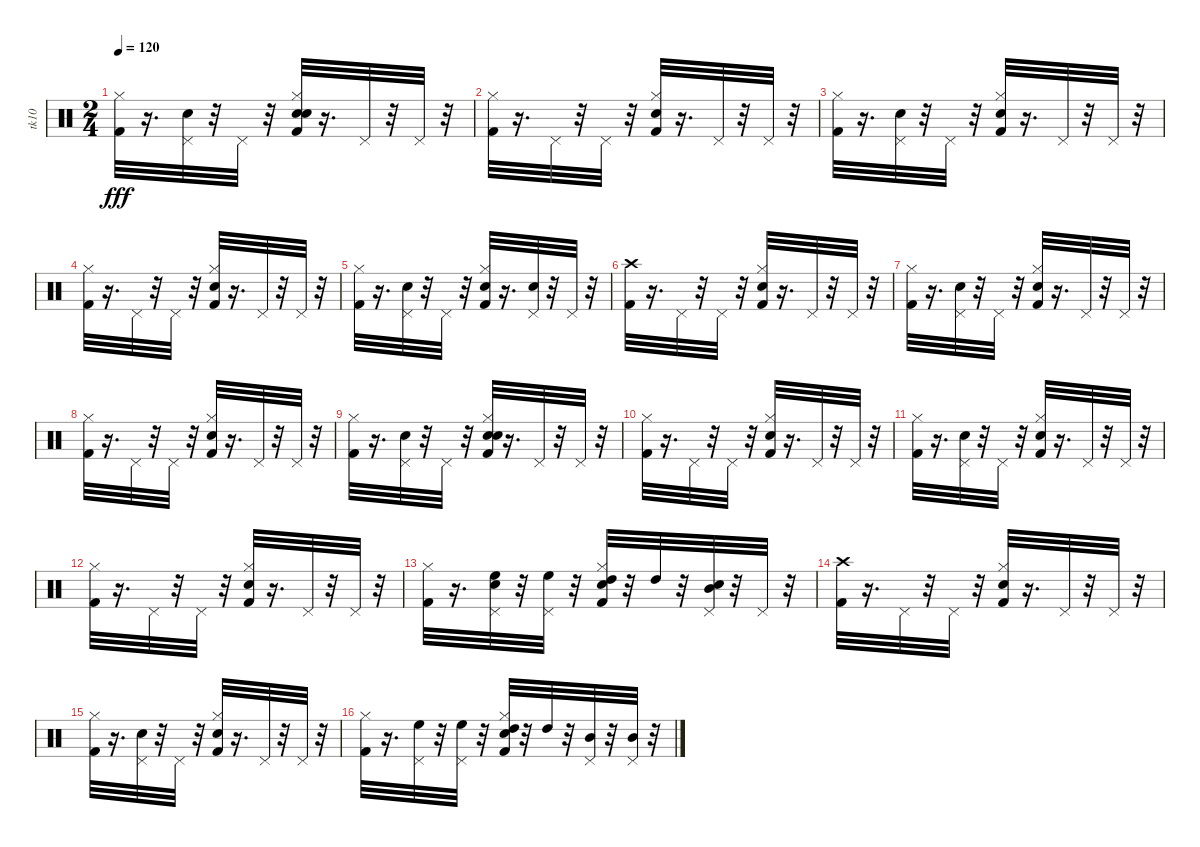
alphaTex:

\track ("tk10" "tk10") {instrument percussion}
\staff {score}
\articulation defaults
\ts (2 4)
\tempo 120
\clef neutral
\ks c
("Kick (hit) 2" "Hi-Hat (closed)").32{dy fff} r.16{d} ("Hand Clap (hit)" "Pedal Hi-Hat (hit)").32 r.32 "Pedal Hi-Hat (hit)".32 r.32 ("Snare (hit) 2" "Kick (hit) 2" "Hand Clap (hit)" "Hi-Hat (closed)").32 r.16{d} "Pedal Hi-Hat (hit)".32 r.32 "Pedal Hi-Hat (hit)".32 r.32 |
("Kick (hit) 2" "Hi-Hat (closed)").32 r.16{d} "Pedal Hi-Hat (hit)".32 r.32 "Pedal Hi-Hat (hit)".32 r.32 ("Kick (hit) 2" "Snare (hit) 2" "Hi-Hat (closed)").32 r.16{d} "Pedal Hi-Hat (hit)".32 r.32 "Pedal Hi-Hat (hit)".32 r.32 |
("Kick (hit) 2" "Hi-Hat (closed)").32 r.16{d} ("Hand Clap (hit)" "Pedal Hi-Hat (hit)").32 r.32 "Pedal Hi-Hat (hit)".32 r.32 ("Kick (hit) 2" "Snare (hit) 2" "Hi-Hat (closed)").32 r.16{d} "Pedal Hi-Hat (hit)".32 r.32 "Pedal Hi-Hat (hit)".32 r.32 |
("Kick (hit) 2" "Hi-Hat (closed)").32 r.16{d} "Pedal Hi-Hat (hit)".32 r.32 "Pedal Hi-Hat (hit)".32 r.32 ("Snare (hit) 2" "Kick (hit) 2" "Hi-Hat (closed)").32 r.16{d} "Pedal Hi-Hat (hit)".32 r.32 "Pedal Hi-Hat (hit)".32 r.32 |
("Kick (hit) 2" "Hi-Hat (closed)").32 r.16{d} ("Hand Clap (hit)" "Pedal Hi-Hat (hit)").32 r.32 "Pedal Hi-Hat (hit)".32 r.32 ("Snare (hit) 2" "Kick (hit) 2" "Hi-Hat (closed)").32 r.16{d} ("Hand Clap (hit)" "Pedal Hi-Hat (hit)").32 r.32 "Pedal Hi-Hat (hit)".32 r.32 |
("Kick (hit) 2" "Crash high (hit)").32 r.16{d} "Pedal Hi-Hat (hit)".32 r.32 "Pedal Hi-Hat (hit)".32 r.32 ("Snare (hit) 2" "Kick (hit) 2" "Hi-Hat (closed)").32 r.16{d} "Pedal Hi-Hat (hit)".32 r.32 "Pedal Hi-Hat (hit)".32 r.32 |
("Kick (hit) 2" "Hi-Hat (closed)").32 r.16{d} ("Pedal Hi-Hat (hit)" "Hand Clap (hit)").32 r.32 "Pedal Hi-Hat (hit)".32 r.32 ("Snare (hit) 2" "Kick (hit) 2" "Hi-Hat (closed)").32 r.16{d} "Pedal Hi-Hat (hit)".32 r.32 "Pedal Hi-Hat (hit)".32 r.32 |
("Kick (hit) 2" "Hi-Hat (closed)").32 r.16{d} "Pedal Hi-Hat (hit)".32 r.32 "Pedal Hi-Hat (hit)".32 r.32 ("Snare (hit) 2" "Kick (hit) 2" "Hi-Hat (closed)").32 r.16{d} "Pedal Hi-Hat (hit)".32 r.32 "Pedal Hi-Hat (hit)".32 r.32 |
("Kick (hit) 2" "Hi-Hat (closed)").32 r.16{d} ("Hand Clap (hit)" "Pedal Hi-Hat (hit)").32 r.32 "Pedal Hi-Hat (hit)".32 r.32 ("Snare (hit) 2" "Kick (hit) 2" "Hand Clap (hit)" "Hi-Hat (closed)").32 r.16{d} "Pedal Hi-Hat (hit)".32 r.32 "Pedal Hi-Hat (hit)".32 r.32 |
("Kick (hit) 2" "Hi-Hat (closed)").32 r.16{d} "Pedal Hi-Hat (hit)".32 r.32 "Pedal Hi-Hat (hit)".32 r.32 ("Kick (hit) 2" "Snare (hit) 2" "Hi-Hat (closed)").32 r.16{d} "Pedal Hi-Hat (hit)".32 r.32 "Pedal Hi-Hat (hit)".32 r.32 |
("Kick (hit) 2" "Hi-Hat (closed)").32 r.16{d} ("Hand Clap (hit)" "Pedal Hi-Hat (hit)").32 r.32 "Pedal Hi-Hat (hit)".32 r.32 ("Kick (hit) 2" "Snare (hit) 2" "Hi-Hat (closed)").32 r.16{d} "Pedal Hi-Hat (hit)".32 r.32 "Pedal Hi-Hat (hit)".32 r.32 |
("Kick (hit) 2" "Hi-Hat (closed)").32 r.16{d} "Pedal Hi-Hat (hit)".32 r.32 "Pedal Hi-Hat (hit)".32 r.32 ("Snare (hit) 2" "Kick (hit) 2" "Hi-Hat (closed)").32 r.16{d} "Pedal Hi-Hat (hit)".32 r.32 "Pedal Hi-Hat (hit)".32 r.32 |
("Kick (hit) 2" "Hi-Hat (closed)").32 r.16{d} ("Hand Clap (hit)" "High Floor Tom (hit)" "Pedal Hi-Hat (hit)").32 r.32 ("High Floor Tom (hit)" "Pedal Hi-Hat (hit)").32 r.32 ("Snare (hit) 2" "Kick (hit) 2" "High Tom (hit)" "Hi-Hat (closed)").32 r.32 "High Tom (hit)".32 r.32 ("Hand Clap (hit)" "Mid Tom (hit)" "Pedal Hi-Hat (hit)").32 r.32 "Pedal Hi-Hat (hit)".32 r.32 |
("Kick (hit) 2" "Crash high (hit)").32 r.16{d} "Pedal Hi-Hat (hit)".32 r.32 "Pedal Hi-Hat (hit)".32 r.32 ("Snare (hit) 2" "Kick (hit) 2" "Hi-Hat (closed)").32 r.16{d} "Pedal Hi-Hat (hit)".32 r.32 "Pedal Hi-Hat (hit)".32 r.32 |
("Kick (hit) 2" "Hi-Hat (closed)").32 r.16{d} ("Pedal Hi-Hat (hit)" "Hand Clap (hit)").32 r.32 "Pedal Hi-Hat (hit)".32 r.32 ("Snare (hit) 2" "Kick (hit) 2" "Hi-Hat (closed)").32 r.16{d} "Pedal Hi-Hat (hit)".32 r.32 "Pedal Hi-Hat (hit)".32 r.32 |
("Kick (hit) 2" "Hi-Hat (closed)").32 r.16{d} ("High Floor Tom (hit)" "Pedal Hi-Hat (hit)").32 r.32 ("High Floor Tom (hit)" "Pedal Hi-Hat (hit)").32 r.32 ("Snare (hit) 2" "Kick (hit) 2" "High Tom (hit)" "Hi-Hat (closed)").32 r.32 "High Tom (hit)".32 r.32 ("Mid Tom (hit)" "Pedal Hi-Hat (hit)").32 r.32 ("Mid Tom (hit)" "Pedal Hi-Hat (hit)").32 r.32
